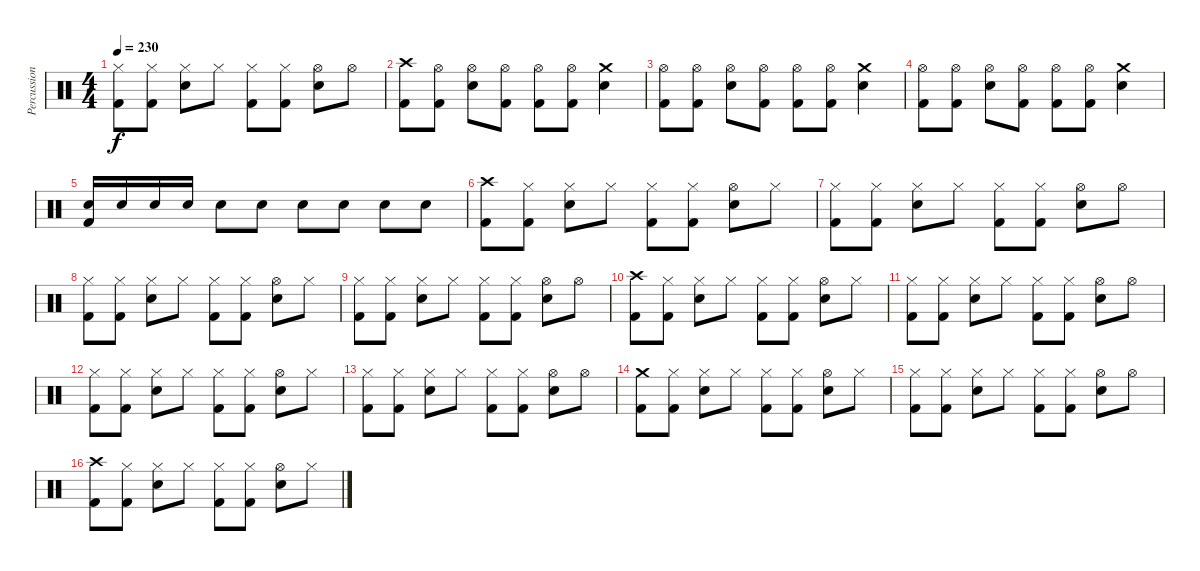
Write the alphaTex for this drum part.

\track ("Percussion" "Percussion") {instrument percussion}
\staff {score}
\articulation defaults
\ts (4 4)
\tempo 230
\clef neutral
\ks c
("Hi-Hat (closed)" "Kick (hit) 2").8{dy f} ("Hi-Hat (closed)" "Kick (hit) 2").8 ("Hi-Hat (closed)" "Snare (hit) 2").8 "Hi-Hat (closed)".8 ("Hi-Hat (closed)" "Kick (hit) 2").8 ("Hi-Hat (closed)" "Kick (hit) 2").8 ("Hi-Hat (open)" "Snare (hit) 2").8 "Hi-Hat (open)".8 |
("Crash high (hit)" "Kick (hit) 2").8 ("Hi-Hat (open)" "Kick (hit) 2").8 ("Hi-Hat (open)" "Snare (hit) 2").8 ("Hi-Hat (open)" "Kick (hit) 2").8 ("Hi-Hat (open)" "Kick (hit) 2").8 ("Hi-Hat (open)" "Kick (hit) 2").8 ("Crash medium (hit)" "Snare (hit) 2").4 |
("Hi-Hat (open)" "Kick (hit) 2").8 ("Hi-Hat (open)" "Kick (hit) 2").8 ("Hi-Hat (open)" "Snare (hit) 2").8 ("Hi-Hat (open)" "Kick (hit) 2").8 ("Hi-Hat (open)" "Kick (hit) 2").8 ("Hi-Hat (open)" "Kick (hit) 2").8 ("Crash medium (hit)" "Snare (hit) 2").4 |
("Hi-Hat (open)" "Kick (hit) 2").8 ("Hi-Hat (open)" "Kick (hit) 2").8 ("Hi-Hat (open)" "Snare (hit) 2").8 ("Hi-Hat (open)" "Kick (hit) 2").8 ("Hi-Hat (open)" "Kick (hit) 2").8 ("Hi-Hat (open)" "Kick (hit) 2").8 ("Crash medium (hit)" "Snare (hit) 2").4 |
("Snare (hit) 2" "Kick (hit) 2").16 "Snare (hit) 2".16 "Snare (hit) 2".16 "Snare (hit) 2".16 "Snare (hit) 2".8 "Snare (hit) 2".8 "Snare (hit) 2".8 "Snare (hit) 2".8 "Snare (hit) 2".8 "Snare (hit) 2".8 |
("Crash high (hit)" "Kick (hit) 2").8 ("Hi-Hat (closed)" "Kick (hit) 2").8 ("Hi-Hat (closed)" "Snare (hit) 2").8 "Hi-Hat (closed)".8 ("Hi-Hat (closed)" "Kick (hit) 2").8 ("Hi-Hat (closed)" "Kick (hit) 2").8 ("Hi-Hat (open)" "Snare (hit) 2").8 "Hi-Hat (closed)".8 |
("Hi-Hat (closed)" "Kick (hit) 2").8 ("Hi-Hat (closed)" "Kick (hit) 2").8 ("Hi-Hat (closed)" "Snare (hit) 2").8 "Hi-Hat (closed)".8 ("Hi-Hat (closed)" "Kick (hit) 2").8 ("Hi-Hat (closed)" "Kick (hit) 2").8 ("Hi-Hat (open)" "Snare (hit) 2").8 "Hi-Hat (open)".8 |
("Hi-Hat (closed)" "Kick (hit) 2").8 ("Hi-Hat (closed)" "Kick (hit) 2").8 ("Hi-Hat (closed)" "Snare (hit) 2").8 "Hi-Hat (closed)".8 ("Hi-Hat (closed)" "Kick (hit) 2").8 ("Hi-Hat (closed)" "Kick (hit) 2").8 ("Hi-Hat (open)" "Snare (hit) 2").8 "Hi-Hat (closed)".8 |
("Hi-Hat (closed)" "Kick (hit) 2").8 ("Hi-Hat (closed)" "Kick (hit) 2").8 ("Hi-Hat (closed)" "Snare (hit) 2").8 "Hi-Hat (closed)".8 ("Hi-Hat (closed)" "Kick (hit) 2").8 ("Hi-Hat (closed)" "Kick (hit) 2").8 ("Hi-Hat (open)" "Snare (hit) 2").8 "Hi-Hat (open)".8 |
("Crash high (hit)" "Kick (hit) 2").8 ("Hi-Hat (closed)" "Kick (hit) 2").8 ("Hi-Hat (closed)" "Snare (hit) 2").8 "Hi-Hat (closed)".8 ("Hi-Hat (closed)" "Kick (hit) 2").8 ("Hi-Hat (closed)" "Kick (hit) 2").8 ("Hi-Hat (open)" "Snare (hit) 2").8 "Hi-Hat (closed)".8 |
("Hi-Hat (closed)" "Kick (hit) 2").8 ("Hi-Hat (closed)" "Kick (hit) 2").8 ("Hi-Hat (closed)" "Snare (hit) 2").8 "Hi-Hat (closed)".8 ("Hi-Hat (closed)" "Kick (hit) 2").8 ("Hi-Hat (closed)" "Kick (hit) 2").8 ("Hi-Hat (open)" "Snare (hit) 2").8 "Hi-Hat (open)".8 |
("Hi-Hat (closed)" "Kick (hit) 2").8 ("Hi-Hat (closed)" "Kick (hit) 2").8 ("Hi-Hat (closed)" "Snare (hit) 2").8 "Hi-Hat (closed)".8 ("Hi-Hat (closed)" "Kick (hit) 2").8 ("Hi-Hat (closed)" "Kick (hit) 2").8 ("Hi-Hat (open)" "Snare (hit) 2").8 "Hi-Hat (closed)".8 |
("Hi-Hat (closed)" "Kick (hit) 2").8 ("Hi-Hat (closed)" "Kick (hit) 2").8 ("Hi-Hat (closed)" "Snare (hit) 2").8 "Hi-Hat (closed)".8 ("Hi-Hat (closed)" "Kick (hit) 2").8 ("Hi-Hat (closed)" "Kick (hit) 2").8 ("Hi-Hat (open)" "Snare (hit) 2").8 "Hi-Hat (open)".8 |
("Crash medium (hit)" "Kick (hit) 2").8 ("Hi-Hat (closed)" "Kick (hit) 2").8 ("Hi-Hat (closed)" "Snare (hit) 2").8 "Hi-Hat (closed)".8 ("Hi-Hat (closed)" "Kick (hit) 2").8 ("Hi-Hat (closed)" "Kick (hit) 2").8 ("Hi-Hat (open)" "Snare (hit) 2").8 "Hi-Hat (closed)".8 |
("Hi-Hat (closed)" "Kick (hit) 2").8 ("Hi-Hat (closed)" "Kick (hit) 2").8 ("Hi-Hat (closed)" "Snare (hit) 2").8 "Hi-Hat (closed)".8 ("Hi-Hat (closed)" "Kick (hit) 2").8 ("Hi-Hat (closed)" "Kick (hit) 2").8 ("Hi-Hat (open)" "Snare (hit) 2").8 "Hi-Hat (open)".8 |
("Crash high (hit)" "Kick (hit) 2").8 ("Hi-Hat (closed)" "Kick (hit) 2").8 ("Hi-Hat (closed)" "Snare (hit) 2").8 "Hi-Hat (closed)".8 ("Hi-Hat (closed)" "Kick (hit) 2").8 ("Hi-Hat (closed)" "Kick (hit) 2").8 ("Hi-Hat (open)" "Snare (hit) 2").8 "Hi-Hat (closed)".8
